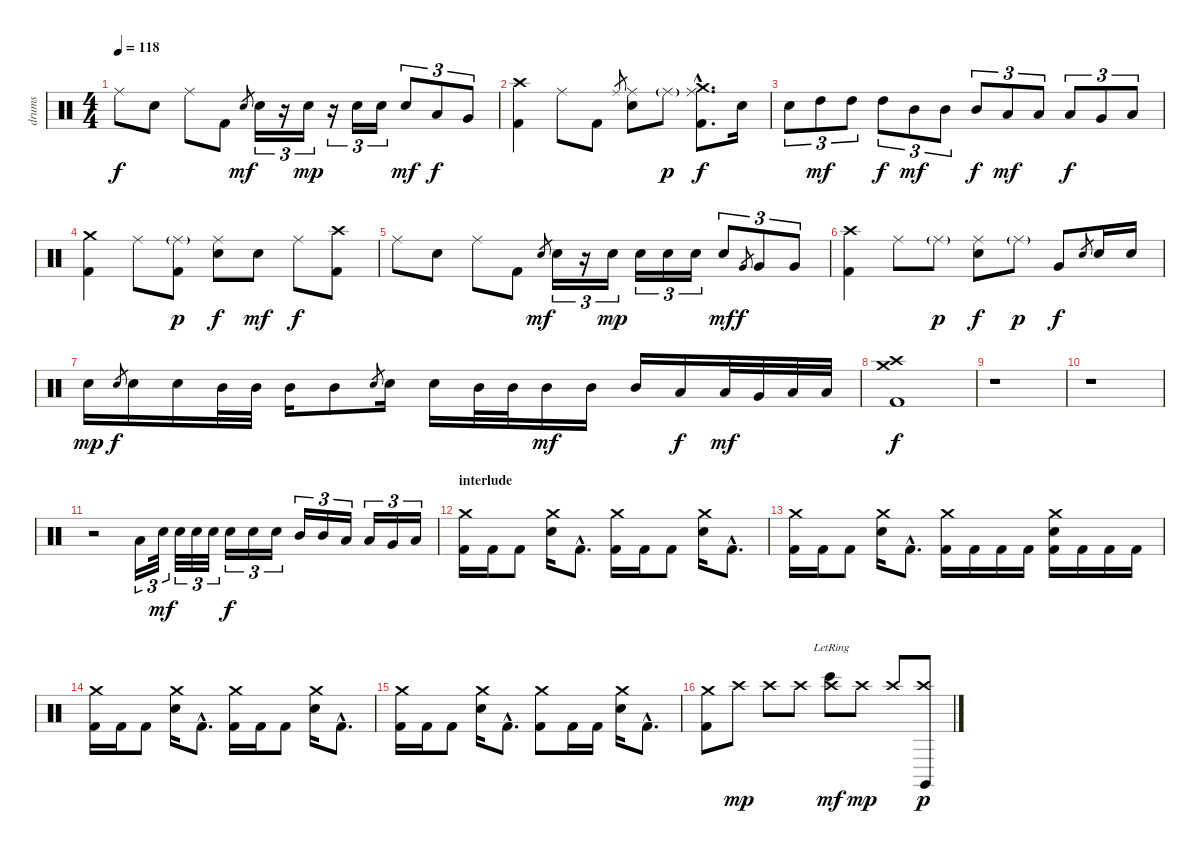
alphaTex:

\track ("drums" "drums") {instrument percussion}
\staff {score}
\articulation defaults
\ts (4 4)
\tempo 118
\clef neutral
\ks c "Ride (middle)".8{dy f} "Snare (hit) 2".8 "Ride (middle)".8 "Kick (hit) 2".8 "Snare (hit) 2".8{gr dy mf} "Snare (hit) 2".16{tu (3 2)}
r.16{tu (3 2)} "Snare (hit) 2".16{tu (3 2) dy mp} r.16{tu (3 2)} "Snare (hit) 2".16{tu (3 2)} "Snare (hit) 2".16{tu (3 2)} "Snare (hit) 2".8{tu (3 2) dy mf} "Low Tom (hit)".8{tu (3 2) dy f} "Very Low Tom (hit)".8{tu (3 2)} |
("Kick (hit) 2" "Crash high (hit)").4 "Ride (middle)".8 "Kick (hit) 2".8 "Ride (middle)".8{gr} ("Ride (middle)" "Snare (hit) 2").8 "Ride (middle)"{g}.8{dy p} ("Kick (hit) 2"{hac} "Crash medium (hit)"{hac} "Ride (middle)"{hac}).8{d dy f} "Snare (hit) 2".16 |
"Snare (hit) 2".8{tu (3 2)} "High Tom (hit)".8{tu (3 2) dy mf} "High Tom (hit)".8{tu (3 2)} "High Tom (hit)".8{tu (3 2) dy f} "Mid Tom (hit)".8{tu (3 2) dy mf} "Mid Tom (hit)".8{tu (3 2)} "Mid Tom (hit)".8{tu (3 2) dy f} "Low Tom (hit)".8{tu (3 2) dy mf} "Low Tom (hit)".8{tu (3 2)} "Low Tom (hit)".8{tu (3 2) dy f} "Very Low Tom (hit)".8{tu (3 2)} "Low Floor Tom (hit)".8{tu (3 2)} |
("Kick (hit) 2" "Crash medium (hit)").4 "Ride (middle)".8 ("Kick (hit) 2" "Ride (middle)"{g}).8{dy p} ("Ride (middle)" "Snare (hit) 2").8{dy f} "Snare (hit) 2".8{dy mf} "Ride (middle)".8{dy f} ("Kick (hit) 2" "Crash high (hit)").8 |
"Ride (middle)".8 "Snare (hit) 2".8 "Ride (middle)".8 "Kick (hit) 2".8 "Snare (hit) 2".8{gr dy mf} "Snare (hit) 2".16{tu (3 2)} r.16{tu (3 2)} "Snare (hit) 2".16{tu (3 2) dy mp} "Snare (hit) 2".16{tu (3 2)} "Snare (hit) 2".16{tu (3 2)} "Snare (hit) 2".16{tu (3 2)} "Snare (hit) 2".8{tu (3 2) dy mf} "Very Low Tom (hit)".8{gr dy f} "Very Low Tom (hit)".8{tu (3 2)} "Very Low Tom (hit)".8{tu (3 2)} |
("Kick (hit) 2" "Crash high (hit)").4 "Ride (middle)".8 "Ride (middle)"{g}.8{dy p} ("Ride (middle)" "Snare (hit) 2").8{dy f} "Ride (middle)"{g}.8{dy p} "Very Low Tom (hit)".8{dy f} "Snare (hit) 2".8{gr} "Snare (hit) 2".16 "Snare (hit) 2".16 |
"Snare (hit) 2".16{dy mp} "Snare (hit) 2".8{gr dy f} "Snare (hit) 2".16 "Snare (hit) 2".16 "Mid Tom (hit)".32 "Mid Tom (hit)".32 "Mid Tom (hit)".16 "Mid Tom (hit)".8 "Snare (hit) 2".8{gr} "Snare (hit) 2".16 "Snare (hit) 2".16 "Mid Tom (hit)".32 "Mid Tom (hit)".32 "Mid Tom (hit)".16{dy mf} "Mid Tom (hit)".16 "Mid Tom (hit)".16 "Low Tom (hit)".16{dy f} "Low Tom (hit)".32{dy mf} "Very Low Tom (hit)".32 "Low Floor Tom (hit)".32 "Low Floor Tom (hit)".32 |
("Kick (hit) 2" "Crash high (hit)" "Crash medium (hit)").1{dy f} |
r.1 |
r.1 |
r.2 "Low Tom (hit)".16{tu (3 2)} "Snare (hit) 2".32{tu (3 2) dy mf} "Snare (hit) 2".32{tu (3 2)} "Snare (hit) 2".32{tu (3 2)} "Snare (hit) 2".32{tu (3 2)} "Snare (hit) 2".16{tu (3 2) dy f} "Snare (hit) 2".16{tu (3 2)} "Snare (hit) 2".16{tu (3 2)} "Mid Tom (hit)".16{tu (3 2)} "Mid Tom (hit)".16{tu (3 2)} "Low Tom (hit)".16{tu (3 2)} "Low Tom (hit)".16{tu (3 2)} "Very Low Tom (hit)".16{tu (3 2)} "Low Floor Tom (hit)".16{tu (3 2)} |
\section ("" "interlude")
("Kick (hit) 2" "Crash medium (hit)").16 "Kick (hit) 2".16 "Kick (hit) 2".8 ("Crash medium (hit)" "Snare (hit) 2").16 "Kick (hit) 2"{hac}.8{d} ("Kick (hit) 2" "Crash medium (hit)").16 "Kick (hit) 2".16 "Kick (hit) 2".8 ("Crash medium (hit)" "Snare (hit) 2").16 "Kick (hit) 2"{hac}.8{d} |
("Kick (hit) 2" "Crash medium (hit)").16 "Kick (hit) 2".16 "Kick (hit) 2".8 ("Crash medium (hit)" "Snare (hit) 2").16 "Kick (hit) 2"{hac}.8{d} ("Kick (hit) 2" "Crash medium (hit)").16 "Kick (hit) 2".16 "Kick (hit) 2".16 "Kick (hit) 2".16 ("Kick (hit) 2" "Crash medium (hit)" "Snare (hit) 2").16 "Kick (hit) 2".16 "Kick (hit) 2".16 "Kick (hit) 2".16 |
("Kick (hit) 2" "Crash medium (hit)").16 "Kick (hit) 2".16 "Kick (hit) 2".8 ("Crash medium (hit)" "Snare (hit) 2").16 "Kick (hit) 2"{hac}.8{d} ("Kick (hit) 2" "Crash medium (hit)").16 "Kick (hit) 2".16 "Kick (hit) 2".8 ("Crash medium (hit)" "Snare (hit) 2").16 "Kick (hit) 2"{hac}.8{d} |
("Kick (hit) 2" "Crash medium (hit)").16 "Kick (hit) 2".16 "Kick (hit) 2".8 ("Crash medium (hit)" "Snare (hit) 2").16 "Kick (hit) 2"{hac}.8{d} ("Kick (hit) 2" "Crash medium (hit)").8 "Kick (hit) 2".16 "Kick (hit) 2".16 ("Crash medium (hit)" "Snare (hit) 2").16 "Kick (hit) 2"{hac}.8{d} |
("Kick (hit) 2" "Crash medium (hit)").8 "Crash high (hit)".8{dy mp} "Crash high (hit)".8 "Crash high (hit)".8 ("Crash high (hit)" "Bongo High (hit)"{lr}).8{dy mf} "Crash high (hit)".8{dy mp} "Crash high (hit)".8 ("Crash high (hit)" "Claves (hit)").8{dy p}
